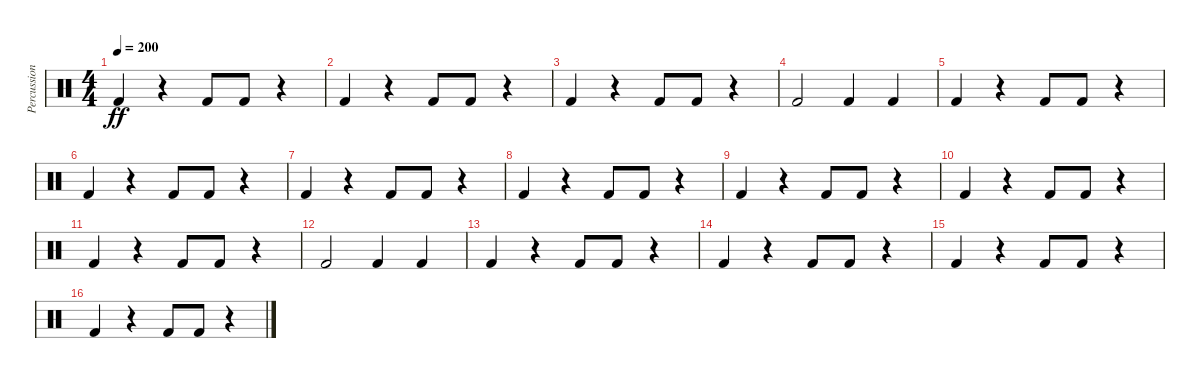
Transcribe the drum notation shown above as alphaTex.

\track ("Percussions 2" "Percussion") {instrument percussion}
\staff {score}
\articulation defaults
\ts (4 4)
\tempo 200
\clef neutral
\ks c "Kick (hit) 2".4{dy ff}
r.4 "Kick (hit) 2".8 "Kick (hit) 2".8 r.4 |
"Kick (hit) 2".4 r.4 "Kick (hit) 2".8 "Kick (hit) 2".8 r.4 |
"Kick (hit) 2".4 r.4 "Kick (hit) 2".8 "Kick (hit) 2".8 r.4 |
"Kick (hit) 2".2 "Kick (hit) 2".4 "Kick (hit) 2".4 |
"Kick (hit) 2".4 r.4 "Kick (hit) 2".8 "Kick (hit) 2".8 r.4 |
"Kick (hit) 2".4 r.4 "Kick (hit) 2".8 "Kick (hit) 2".8 r.4 |
"Kick (hit) 2".4 r.4 "Kick (hit) 2".8 "Kick (hit) 2".8 r.4 |
"Kick (hit) 2".4 r.4 "Kick (hit) 2".8 "Kick (hit) 2".8 r.4 |
"Kick (hit) 2".4 r.4 "Kick (hit) 2".8 "Kick (hit) 2".8 r.4 |
"Kick (hit) 2".4 r.4 "Kick (hit) 2".8 "Kick (hit) 2".8 r.4 |
"Kick (hit) 2".4 r.4 "Kick (hit) 2".8 "Kick (hit) 2".8 r.4 |
"Kick (hit) 2".2 "Kick (hit) 2".4 "Kick (hit) 2".4 |
"Kick (hit) 2".4 r.4 "Kick (hit) 2".8 "Kick (hit) 2".8 r.4 |
"Kick (hit) 2".4 r.4 "Kick (hit) 2".8 "Kick (hit) 2".8 r.4 |
"Kick (hit) 2".4 r.4 "Kick (hit) 2".8 "Kick (hit) 2".8 r.4 |
"Kick (hit) 2".4 r.4 "Kick (hit) 2".8 "Kick (hit) 2".8 r.4
